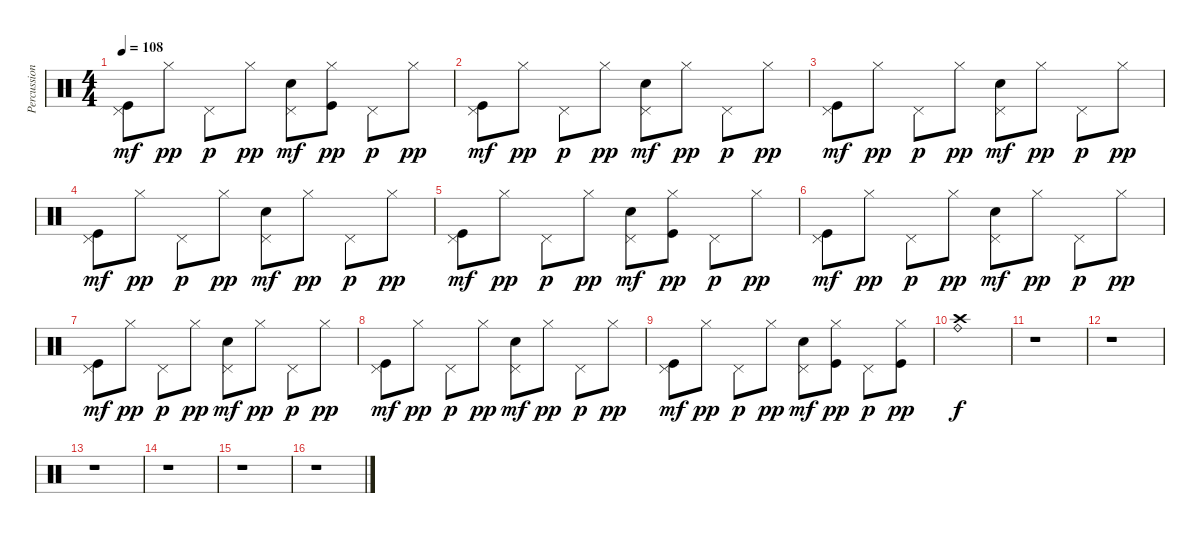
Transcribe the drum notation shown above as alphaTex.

\track ("Percussion" "Percussion") {instrument percussion}
\staff {score}
\articulation defaults
\ts (4 4)
\tempo 108
\clef neutral
\ks c
("Kick (hit)" "Pedal Hi-Hat (hit)").8{dy mf} "Hi-Hat (closed)".8{dy pp} "Pedal Hi-Hat (hit)".8{dy p} "Hi-Hat (closed)".8{dy pp} ("Electric Snare (hit)" "Pedal Hi-Hat (hit)").8{dy mf} ("Kick (hit)" "Hi-Hat (closed)").8{dy pp} "Pedal Hi-Hat (hit)".8{dy p} "Hi-Hat (closed)".8{dy pp} |
("Kick (hit)" "Pedal Hi-Hat (hit)").8{dy mf} "Hi-Hat (closed)".8{dy pp} "Pedal Hi-Hat (hit)".8{dy p} "Hi-Hat (closed)".8{dy pp} ("Electric Snare (hit)" "Pedal Hi-Hat (hit)").8{dy mf} "Hi-Hat (closed)".8{dy pp} "Pedal Hi-Hat (hit)".8{dy p} "Hi-Hat (closed)".8{dy pp} |
("Kick (hit)" "Pedal Hi-Hat (hit)").8{dy mf} "Hi-Hat (closed)".8{dy pp} "Pedal Hi-Hat (hit)".8{dy p} "Hi-Hat (closed)".8{dy pp} ("Electric Snare (hit)" "Pedal Hi-Hat (hit)").8{dy mf} "Hi-Hat (closed)".8{dy pp} "Pedal Hi-Hat (hit)".8{dy p} "Hi-Hat (closed)".8{dy pp} |
("Kick (hit)" "Pedal Hi-Hat (hit)").8{dy mf} "Hi-Hat (closed)".8{dy pp} "Pedal Hi-Hat (hit)".8{dy p} "Hi-Hat (closed)".8{dy pp} ("Electric Snare (hit)" "Pedal Hi-Hat (hit)").8{dy mf} "Hi-Hat (closed)".8{dy pp} "Pedal Hi-Hat (hit)".8{dy p} "Hi-Hat (closed)".8{dy pp} |
("Kick (hit)" "Pedal Hi-Hat (hit)").8{dy mf} "Hi-Hat (closed)".8{dy pp} "Pedal Hi-Hat (hit)".8{dy p} "Hi-Hat (closed)".8{dy pp} ("Electric Snare (hit)" "Pedal Hi-Hat (hit)").8{dy mf} ("Kick (hit)" "Hi-Hat (closed)").8{dy pp} "Pedal Hi-Hat (hit)".8{dy p} "Hi-Hat (closed)".8{dy pp} |
("Kick (hit)" "Pedal Hi-Hat (hit)").8{dy mf} "Hi-Hat (closed)".8{dy pp} "Pedal Hi-Hat (hit)".8{dy p} "Hi-Hat (closed)".8{dy pp} ("Electric Snare (hit)" "Pedal Hi-Hat (hit)").8{dy mf} "Hi-Hat (closed)".8{dy pp} "Pedal Hi-Hat (hit)".8{dy p} "Hi-Hat (closed)".8{dy pp} |
("Kick (hit)" "Pedal Hi-Hat (hit)").8{dy mf} "Hi-Hat (closed)".8{dy pp} "Pedal Hi-Hat (hit)".8{dy p} "Hi-Hat (closed)".8{dy pp} ("Electric Snare (hit)" "Pedal Hi-Hat (hit)").8{dy mf} "Hi-Hat (closed)".8{dy pp} "Pedal Hi-Hat (hit)".8{dy p} "Hi-Hat (closed)".8{dy pp} |
("Kick (hit)" "Pedal Hi-Hat (hit)").8{dy mf} "Hi-Hat (closed)".8{dy pp} "Pedal Hi-Hat (hit)".8{dy p} "Hi-Hat (closed)".8{dy pp} ("Electric Snare (hit)" "Pedal Hi-Hat (hit)").8{dy mf} "Hi-Hat (closed)".8{dy pp} "Pedal Hi-Hat (hit)".8{dy p} "Hi-Hat (closed)".8{dy pp} |
("Kick (hit)" "Pedal Hi-Hat (hit)").8{dy mf} "Hi-Hat (closed)".8{dy pp} "Pedal Hi-Hat (hit)".8{dy p} "Hi-Hat (closed)".8{dy pp} ("Electric Snare (hit)" "Pedal Hi-Hat (hit)").8{dy mf} ("Kick (hit)" "Hi-Hat (closed)").8{dy pp} "Pedal Hi-Hat (hit)".8{dy p} ("Kick (hit)" "Hi-Hat (closed)").8{dy pp} |
("Ride (bell)" "Crash high (hit)").1{dy f} |
r.1 |
r.1 |
r.1 |
r.1 |
r.1 |
r.1
